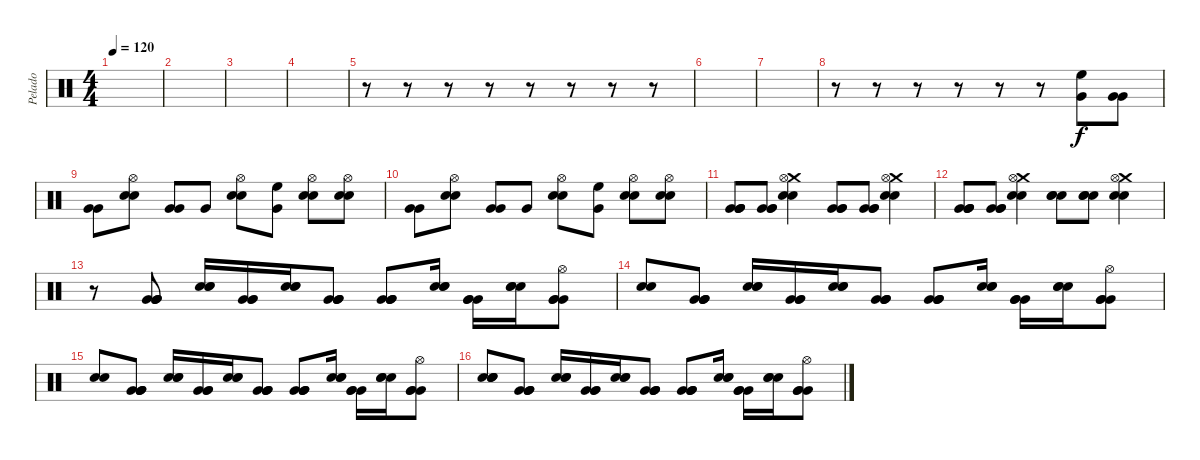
\track ("Pelado" "Pelado") {instrument percussion}
\staff {score}
\articulation defaults
\ts (4 4)
\tempo 120
\clef neutral
\ks c
|
|
|
|
r.8 r.8 r.8 r.8 r.8 r.8 r.8 r.8 |
|
|
r.8 r.8 r.8 r.8 r.8 r.8 ("Very Low Tom (hit)" "High Floor Tom (hit)").8 ("Very Low Tom (hit)" "Very Low Tom (hit)").8 |
("Very Low Tom (hit)" "Very Low Tom (hit)").8 ("Hi-Hat (open)" "Electric Snare (hit)" "Electric Snare (hit)").8 ("Very Low Tom (hit)" "Very Low Tom (hit)").8 "Very Low Tom (hit)".8 ("Hi-Hat (open)" "Electric Snare (hit)" "Electric Snare (hit)").8 ("Very Low Tom (hit)" "High Floor Tom (hit)").8 ("Hi-Hat (open)" "Electric Snare (hit)" "Electric Snare (hit)").8 ("Hi-Hat (open)" "Electric Snare (hit)" "Electric Snare (hit)").8 |
("Very Low Tom (hit)" "Very Low Tom (hit)").8 ("Hi-Hat (open)" "Electric Snare (hit)" "Electric Snare (hit)").8 ("Very Low Tom (hit)" "Very Low Tom (hit)").8 "Very Low Tom (hit)".8 ("Hi-Hat (open)" "Electric Snare (hit)" "Electric Snare (hit)").8 ("Very Low Tom (hit)" "High Floor Tom (hit)").8 ("Hi-Hat (open)" "Electric Snare (hit)" "Electric Snare (hit)").8 ("Hi-Hat (open)" "Electric Snare (hit)" "Electric Snare (hit)").8 |
("Very Low Tom (hit)" "Very Low Tom (hit)" "Very Low Tom (hit)" "Very Low Tom (hit)").8 ("Very Low Tom (hit)" "Very Low Tom (hit)" "Very Low Tom (hit)").8 ("Crash medium (hit)" "Hi-Hat (open)" "Electric Snare (hit)" "Electric Snare (hit)").4 ("Very Low Tom (hit)" "Very Low Tom (hit)" "Very Low Tom (hit)").8 ("Very Low Tom (hit)" "Very Low Tom (hit)" "Very Low Tom (hit)").8 ("Crash medium (hit)" "Hi-Hat (open)" "Electric Snare (hit)" "Electric Snare (hit)").4 |
("Very Low Tom (hit)" "Very Low Tom (hit)" "Very Low Tom (hit)" "Very Low Tom (hit)").8 ("Very Low Tom (hit)" "Very Low Tom (hit)" "Very Low Tom (hit)").8 ("Crash medium (hit)" "Hi-Hat (open)" "Electric Snare (hit)" "Electric Snare (hit)").4 ("Electric Snare (hit)" "Electric Snare (hit)" "Electric Snare (hit)").8 ("Electric Snare (hit)" "Electric Snare (hit)" "Electric Snare (hit)").8 ("Crash medium (hit)" "Hi-Hat (open)" "Electric Snare (hit)" "Electric Snare (hit)").4 |
r.8 ("Very Low Tom (hit)" "Very Low Tom (hit)" "Very Low Tom (hit)" "Very Low Tom (hit)").8 ("Electric Snare (hit)" "Electric Snare (hit)" "Electric Snare (hit)").16 ("Very Low Tom (hit)" "Very Low Tom (hit)" "Very Low Tom (hit)").16 ("Electric Snare (hit)" "Electric Snare (hit)" "Electric Snare (hit)").16 ("Very Low Tom (hit)" "Very Low Tom (hit)" "Very Low Tom (hit)" "Very Low Tom (hit)").8 ("Very Low Tom (hit)" "Very Low Tom (hit)" "Very Low Tom (hit)" "Very Low Tom (hit)").8 ("Electric Snare (hit)" "Electric Snare (hit)" "Electric Snare (hit)").16 ("Very Low Tom (hit)" "Very Low Tom (hit)" "Very Low Tom (hit)").16 ("Electric Snare (hit)" "Electric Snare (hit)" "Electric Snare (hit)").16 ("Hi-Hat (open)" "Very Low Tom (hit)" "Very Low Tom (hit)" "Very Low Tom (hit)").8 |
("Electric Snare (hit)" "Electric Snare (hit)").8 ("Very Low Tom (hit)" "Very Low Tom (hit)" "Very Low Tom (hit)" "Very Low Tom (hit)").8 ("Electric Snare (hit)" "Electric Snare (hit)" "Electric Snare (hit)").16 ("Very Low Tom (hit)" "Very Low Tom (hit)" "Very Low Tom (hit)").16 ("Electric Snare (hit)" "Electric Snare (hit)" "Electric Snare (hit)").16 ("Very Low Tom (hit)" "Very Low Tom (hit)" "Very Low Tom (hit)" "Very Low Tom (hit)").8 ("Very Low Tom (hit)" "Very Low Tom (hit)" "Very Low Tom (hit)" "Very Low Tom (hit)").8 ("Electric Snare (hit)" "Electric Snare (hit)" "Electric Snare (hit)").16 ("Very Low Tom (hit)" "Very Low Tom (hit)" "Very Low Tom (hit)").16 ("Electric Snare (hit)" "Electric Snare (hit)" "Electric Snare (hit)").16 ("Hi-Hat (open)" "Very Low Tom (hit)" "Very Low Tom (hit)" "Very Low Tom (hit)").8 |
("Electric Snare (hit)" "Electric Snare (hit)").8 ("Very Low Tom (hit)" "Very Low Tom (hit)" "Very Low Tom (hit)" "Very Low Tom (hit)").8 ("Electric Snare (hit)" "Electric Snare (hit)" "Electric Snare (hit)").16 ("Very Low Tom (hit)" "Very Low Tom (hit)" "Very Low Tom (hit)").16 ("Electric Snare (hit)" "Electric Snare (hit)" "Electric Snare (hit)").16 ("Very Low Tom (hit)" "Very Low Tom (hit)" "Very Low Tom (hit)" "Very Low Tom (hit)").8 ("Very Low Tom (hit)" "Very Low Tom (hit)" "Very Low Tom (hit)" "Very Low Tom (hit)").8 ("Electric Snare (hit)" "Electric Snare (hit)" "Electric Snare (hit)").16 ("Very Low Tom (hit)" "Very Low Tom (hit)" "Very Low Tom (hit)").16 ("Electric Snare (hit)" "Electric Snare (hit)" "Electric Snare (hit)").16 ("Hi-Hat (open)" "Very Low Tom (hit)" "Very Low Tom (hit)" "Very Low Tom (hit)").8 |
("Electric Snare (hit)" "Electric Snare (hit)" "Electric Snare (hit)" "Electric Snare (hit)").8 ("Very Low Tom (hit)" "Very Low Tom (hit)" "Very Low Tom (hit)" "Very Low Tom (hit)").8 ("Electric Snare (hit)" "Electric Snare (hit)" "Electric Snare (hit)").16 ("Very Low Tom (hit)" "Very Low Tom (hit)" "Very Low Tom (hit)").16 ("Electric Snare (hit)" "Electric Snare (hit)" "Electric Snare (hit)").16 ("Very Low Tom (hit)" "Very Low Tom (hit)" "Very Low Tom (hit)" "Very Low Tom (hit)").8 ("Very Low Tom (hit)" "Very Low Tom (hit)" "Very Low Tom (hit)" "Very Low Tom (hit)").8 ("Electric Snare (hit)" "Electric Snare (hit)" "Electric Snare (hit)").16 ("Very Low Tom (hit)" "Very Low Tom (hit)" "Very Low Tom (hit)").16 ("Electric Snare (hit)" "Electric Snare (hit)" "Electric Snare (hit)").16 ("Hi-Hat (open)" "Very Low Tom (hit)" "Very Low Tom (hit)" "Very Low Tom (hit)").8
